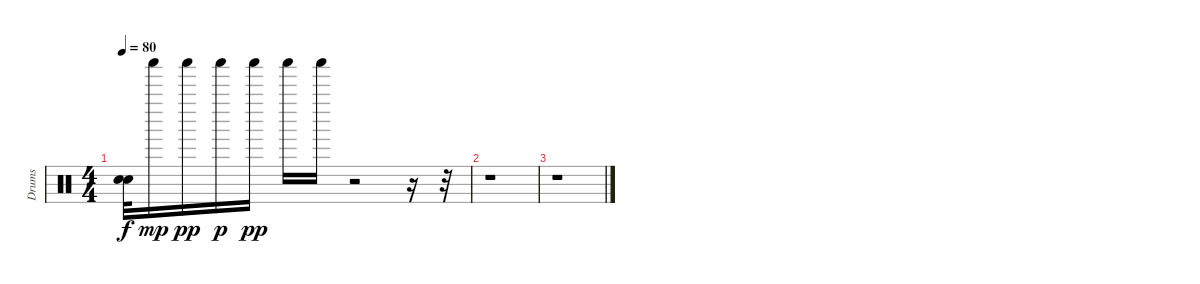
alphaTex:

\track ("Drums" "Drums") {instrument percussion}
\staff {score}
\articulation defaults
\ts (4 4)
\tempo 80
\clef neutral
\ks c
("Snare (hit)"{t} "Snare (hit)"{t}).32{dy f} "Shaker (hit)".16{dy mp} "Shaker (hit)".16{dy pp} "Shaker (hit)".16{dy p} "Shaker (hit)".16{dy pp} "Shaker (hit)".16 "Shaker (hit)".16 r.2 r.16 r.32 |
r.1 |
r.1
